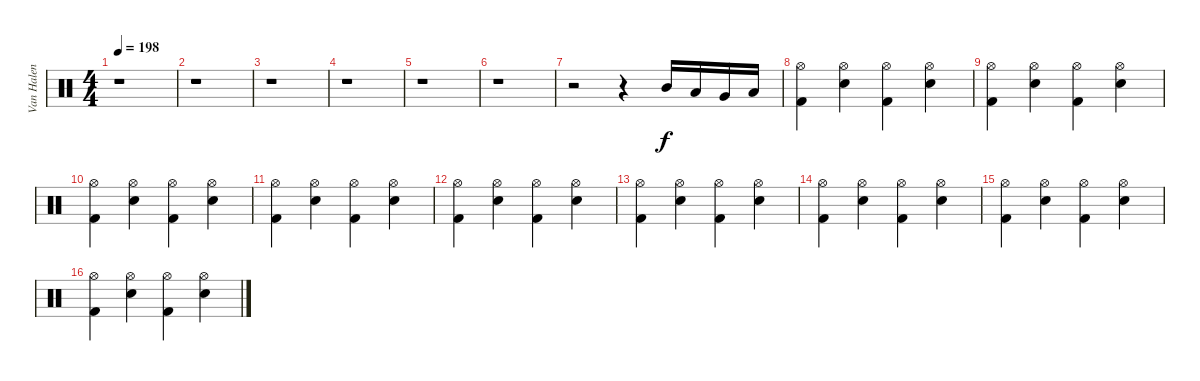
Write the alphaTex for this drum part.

\track ("Van Halen" "Van Halen") {instrument percussion}
\staff {score}
\articulation defaults
\ts (4 4)
\tempo 198
\clef neutral
\ks c
r.1{dy f} |
r.1 |
r.1 |
r.1 |
r.1 |
r.1 |
r.2 r.4 "Mid Tom (hit)".16 "Low Tom (hit)".16 "Very Low Tom (hit)".16 "Low Floor Tom (hit)".16 |
("Kick (hit) 2" "Hi-Hat (open)").4 ("Snare (hit) 2" "Hi-Hat (open)").4 ("Kick (hit) 2" "Hi-Hat (open)").4 ("Snare (hit) 2" "Hi-Hat (open)").4 |
("Kick (hit) 2" "Hi-Hat (open)").4 ("Snare (hit) 2" "Hi-Hat (open)").4 ("Kick (hit) 2" "Hi-Hat (open)").4 ("Snare (hit) 2" "Hi-Hat (open)").4 |
("Kick (hit) 2" "Hi-Hat (open)").4 ("Snare (hit) 2" "Hi-Hat (open)").4 ("Kick (hit) 2" "Hi-Hat (open)").4 ("Snare (hit) 2" "Hi-Hat (open)").4 |
("Kick (hit) 2" "Hi-Hat (open)").4 ("Snare (hit) 2" "Hi-Hat (open)").4 ("Kick (hit) 2" "Hi-Hat (open)").4 ("Snare (hit) 2" "Hi-Hat (open)").4 |
("Kick (hit) 2" "Hi-Hat (open)").4 ("Snare (hit) 2" "Hi-Hat (open)").4 ("Kick (hit) 2" "Hi-Hat (open)").4 ("Snare (hit) 2" "Hi-Hat (open)").4 |
("Kick (hit) 2" "Hi-Hat (open)").4 ("Snare (hit) 2" "Hi-Hat (open)").4 ("Kick (hit) 2" "Hi-Hat (open)").4 ("Snare (hit) 2" "Hi-Hat (open)").4 |
("Kick (hit) 2" "Hi-Hat (open)").4 ("Snare (hit) 2" "Hi-Hat (open)").4 ("Kick (hit) 2" "Hi-Hat (open)").4 ("Snare (hit) 2" "Hi-Hat (open)").4 |
("Kick (hit) 2" "Hi-Hat (open)").4 ("Snare (hit) 2" "Hi-Hat (open)").4 ("Kick (hit) 2" "Hi-Hat (open)").4 ("Snare (hit) 2" "Hi-Hat (open)").4 |
("Kick (hit) 2" "Hi-Hat (open)").4 ("Snare (hit) 2" "Hi-Hat (open)").4 ("Kick (hit) 2" "Hi-Hat (open)").4 ("Snare (hit) 2" "Hi-Hat (open)").4
